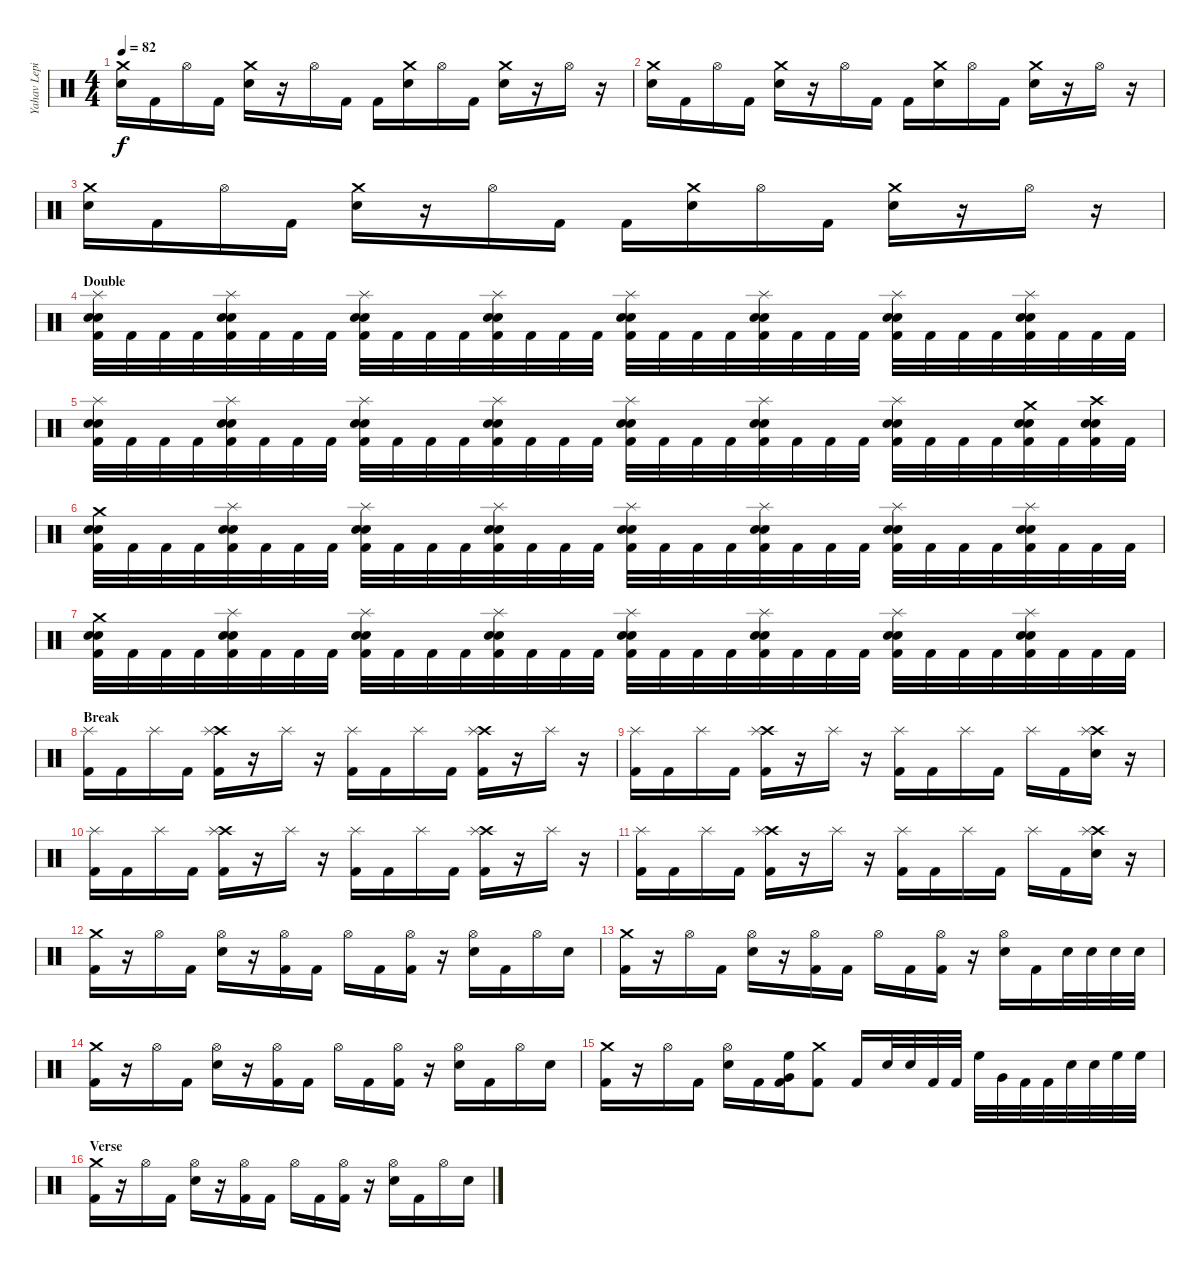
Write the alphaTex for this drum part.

\track ("Yahav Lepinsky" "Yahav Lepi") {instrument percussion}
\staff {score}
\articulation defaults
\ts (4 4)
\tempo 82
\clef neutral
\ks c
("Crash medium (hit)" "Electric Snare (hit)").16{dy f} "Kick (hit) 2".16 "Hi-Hat (open)".16 "Kick (hit) 2".16 ("Crash medium (hit)" "Electric Snare (hit)").16 r.16 "Hi-Hat (open)".16 "Kick (hit) 2".16 "Kick (hit) 2".16 ("Crash medium (hit)" "Electric Snare (hit)").16 "Hi-Hat (open)".16 "Kick (hit) 2".16 ("Crash medium (hit)" "Electric Snare (hit)").16 r.16 "Hi-Hat (open)".16 r.16 |
("Crash medium (hit)" "Electric Snare (hit)").16 "Kick (hit) 2".16 "Hi-Hat (open)".16 "Kick (hit) 2".16 ("Crash medium (hit)" "Electric Snare (hit)").16 r.16 "Hi-Hat (open)".16 "Kick (hit) 2".16 "Kick (hit) 2".16 ("Crash medium (hit)" "Electric Snare (hit)").16 "Hi-Hat (open)".16 "Kick (hit) 2".16 ("Crash medium (hit)" "Electric Snare (hit)").16 r.16 "Hi-Hat (open)".16 r.16 |
("Crash medium (hit)" "Electric Snare (hit)").16 "Kick (hit) 2".16 "Hi-Hat (open)".16 "Kick (hit) 2".16 ("Crash medium (hit)" "Electric Snare (hit)").16 r.16 "Hi-Hat (open)".16 "Kick (hit) 2".16 "Kick (hit) 2".16 ("Crash medium (hit)" "Electric Snare (hit)").16 "Hi-Hat (open)".16 "Kick (hit) 2".16 ("Crash medium (hit)" "Electric Snare (hit)").16 r.16 "Hi-Hat (open)".16 r.16 |
\section ("" "Double")
("Splash (hit)" "Electric Snare (hit)" "Electric Snare (hit)" "Kick (hit) 2").32 "Kick (hit) 2".32 "Kick (hit) 2".32 "Kick (hit) 2".32 ("Splash (hit)" "Electric Snare (hit)" "Electric Snare (hit)" "Kick (hit) 2").32 "Kick (hit) 2".32 "Kick (hit) 2".32 "Kick (hit) 2".32 ("Splash (hit)" "Electric Snare (hit)" "Electric Snare (hit)" "Kick (hit) 2").32 "Kick (hit) 2".32 "Kick (hit) 2".32 "Kick (hit) 2".32 ("Splash (hit)" "Electric Snare (hit)" "Electric Snare (hit)" "Kick (hit) 2").32 "Kick (hit) 2".32 "Kick (hit) 2".32 "Kick (hit) 2".32 ("Splash (hit)" "Electric Snare (hit)" "Electric Snare (hit)" "Kick (hit) 2").32 "Kick (hit) 2".32 "Kick (hit) 2".32 "Kick (hit) 2".32 ("Splash (hit)" "Electric Snare (hit)" "Electric Snare (hit)" "Kick (hit) 2").32 "Kick (hit) 2".32 "Kick (hit) 2".32 "Kick (hit) 2".32 ("Splash (hit)" "Electric Snare (hit)" "Electric Snare (hit)" "Kick (hit) 2").32 "Kick (hit) 2".32 "Kick (hit) 2".32 "Kick (hit) 2".32 ("Splash (hit)" "Electric Snare (hit)" "Electric Snare (hit)" "Kick (hit) 2").32 "Kick (hit) 2".32 "Kick (hit) 2".32 "Kick (hit) 2".32 |
("Splash (hit)" "Electric Snare (hit)" "Electric Snare (hit)" "Kick (hit) 2").32 "Kick (hit) 2".32 "Kick (hit) 2".32 "Kick (hit) 2".32 ("Splash (hit)" "Electric Snare (hit)" "Electric Snare (hit)" "Kick (hit) 2").32 "Kick (hit) 2".32 "Kick (hit) 2".32 "Kick (hit) 2".32 ("Splash (hit)" "Electric Snare (hit)" "Electric Snare (hit)" "Kick (hit) 2").32 "Kick (hit) 2".32 "Kick (hit) 2".32 "Kick (hit) 2".32 ("Splash (hit)" "Electric Snare (hit)" "Electric Snare (hit)" "Kick (hit) 2").32 "Kick (hit) 2".32 "Kick (hit) 2".32 "Kick (hit) 2".32 ("Splash (hit)" "Electric Snare (hit)" "Electric Snare (hit)" "Kick (hit) 2").32 "Kick (hit) 2".32 "Kick (hit) 2".32 "Kick (hit) 2".32 ("Splash (hit)" "Electric Snare (hit)" "Electric Snare (hit)" "Kick (hit) 2").32 "Kick (hit) 2".32 "Kick (hit) 2".32 "Kick (hit) 2".32 ("Splash (hit)" "Electric Snare (hit)" "Electric Snare (hit)" "Kick (hit) 2").32 "Kick (hit) 2".32 "Kick (hit) 2".32 "Kick (hit) 2".32 ("Crash medium (hit)" "Electric Snare (hit)" "Electric Snare (hit)" "Kick (hit) 2").32 "Kick (hit) 2".32 ("Crash high (hit)" "Electric Snare (hit)" "Electric Snare (hit)" "Kick (hit) 2").32 "Kick (hit) 2".32 |
("Crash medium (hit)" "Electric Snare (hit)" "Electric Snare (hit)" "Kick (hit) 2").32 "Kick (hit) 2".32 "Kick (hit) 2".32 "Kick (hit) 2".32 ("Splash (hit)" "Electric Snare (hit)" "Electric Snare (hit)" "Kick (hit) 2").32 "Kick (hit) 2".32 "Kick (hit) 2".32 "Kick (hit) 2".32 ("Splash (hit)" "Electric Snare (hit)" "Electric Snare (hit)" "Kick (hit) 2").32 "Kick (hit) 2".32 "Kick (hit) 2".32 "Kick (hit) 2".32 ("Splash (hit)" "Electric Snare (hit)" "Electric Snare (hit)" "Kick (hit) 2").32 "Kick (hit) 2".32 "Kick (hit) 2".32 "Kick (hit) 2".32 ("Splash (hit)" "Electric Snare (hit)" "Electric Snare (hit)" "Kick (hit) 2").32 "Kick (hit) 2".32 "Kick (hit) 2".32 "Kick (hit) 2".32 ("Splash (hit)" "Electric Snare (hit)" "Electric Snare (hit)" "Kick (hit) 2").32 "Kick (hit) 2".32 "Kick (hit) 2".32 "Kick (hit) 2".32 ("Splash (hit)" "Electric Snare (hit)" "Electric Snare (hit)" "Kick (hit) 2").32 "Kick (hit) 2".32 "Kick (hit) 2".32 "Kick (hit) 2".32 ("Splash (hit)" "Electric Snare (hit)" "Electric Snare (hit)" "Kick (hit) 2").32 "Kick (hit) 2".32 "Kick (hit) 2".32 "Kick (hit) 2".32 |
("Crash medium (hit)" "Electric Snare (hit)" "Electric Snare (hit)" "Kick (hit) 2").32 "Kick (hit) 2".32 "Kick (hit) 2".32 "Kick (hit) 2".32 ("Splash (hit)" "Electric Snare (hit)" "Electric Snare (hit)" "Kick (hit) 2").32 "Kick (hit) 2".32 "Kick (hit) 2".32 "Kick (hit) 2".32 ("Splash (hit)" "Electric Snare (hit)" "Electric Snare (hit)" "Kick (hit) 2").32 "Kick (hit) 2".32 "Kick (hit) 2".32 "Kick (hit) 2".32 ("Splash (hit)" "Electric Snare (hit)" "Electric Snare (hit)" "Kick (hit) 2").32 "Kick (hit) 2".32 "Kick (hit) 2".32 "Kick (hit) 2".32 ("Splash (hit)" "Electric Snare (hit)" "Electric Snare (hit)" "Kick (hit) 2").32 "Kick (hit) 2".32 "Kick (hit) 2".32 "Kick (hit) 2".32 ("Splash (hit)" "Electric Snare (hit)" "Electric Snare (hit)" "Kick (hit) 2").32 "Kick (hit) 2".32 "Kick (hit) 2".32 "Kick (hit) 2".32 ("Splash (hit)" "Electric Snare (hit)" "Electric Snare (hit)" "Kick (hit) 2").32 "Kick (hit) 2".32 "Kick (hit) 2".32 "Kick (hit) 2".32 ("Splash (hit)" "Electric Snare (hit)" "Electric Snare (hit)" "Kick (hit) 2").32 "Kick (hit) 2".32 "Kick (hit) 2".32 "Kick (hit) 2".32 |
\section ("" "Break")
("Splash (hit)" "Kick (hit) 2").16 "Kick (hit) 2".16 "Splash (hit)".16 "Kick (hit) 2".16 ("Crash high (hit)" "Splash (hit)" "Kick (hit) 2").16 r.16 "Splash (hit)".16 r.16 ("Splash (hit)" "Kick (hit) 2").16 "Kick (hit) 2".16 "Splash (hit)".16 "Kick (hit) 2".16 ("Crash high (hit)" "Splash (hit)" "Kick (hit) 2").16 r.16 "Splash (hit)".16 r.16 |
("Splash (hit)" "Kick (hit) 2").16 "Kick (hit) 2".16 "Splash (hit)".16 "Kick (hit) 2".16 ("Crash high (hit)" "Splash (hit)" "Kick (hit) 2").16 r.16 "Splash (hit)".16 r.16 ("Splash (hit)" "Kick (hit) 2").16 "Kick (hit) 2".16 "Splash (hit)".16 "Kick (hit) 2".16 "Splash (hit)".16 "Kick (hit) 2".16 ("Crash high (hit)" "Electric Snare (hit)" "Splash (hit)").16 r.16 |
("Splash (hit)" "Kick (hit) 2").16 "Kick (hit) 2".16 "Splash (hit)".16 "Kick (hit) 2".16 ("Crash high (hit)" "Splash (hit)" "Kick (hit) 2").16 r.16 "Splash (hit)".16 r.16 ("Splash (hit)" "Kick (hit) 2").16 "Kick (hit) 2".16 "Splash (hit)".16 "Kick (hit) 2".16 ("Crash high (hit)" "Splash (hit)" "Kick (hit) 2").16 r.16 "Splash (hit)".16 r.16 |
("Splash (hit)" "Kick (hit) 2").16 "Kick (hit) 2".16 "Splash (hit)".16 "Kick (hit) 2".16 ("Crash high (hit)" "Splash (hit)" "Kick (hit) 2").16 r.16 "Splash (hit)".16 r.16 ("Splash (hit)" "Kick (hit) 2").16 "Kick (hit) 2".16 "Splash (hit)".16 "Kick (hit) 2".16 "Splash (hit)".16 "Kick (hit) 2".16 ("Crash high (hit)" "Electric Snare (hit)" "Splash (hit)").16 r.16 |
("Crash medium (hit)" "Kick (hit) 2").16 r.16 "Hi-Hat (open)".16 "Kick (hit) 2".16 ("Hi-Hat (open)" "Electric Snare (hit)").16 r.16 ("Hi-Hat (open)" "Kick (hit) 2").16 "Kick (hit) 2".16 "Hi-Hat (open)".16 "Kick (hit) 2".16 ("Hi-Hat (open)" "Kick (hit) 2").16 r.16 ("Hi-Hat (open)" "Electric Snare (hit)").16 "Kick (hit) 2".16 "Hi-Hat (open)".16 "Electric Snare (hit)".16 |
("Crash medium (hit)" "Kick (hit) 2").16 r.16 "Hi-Hat (open)".16 "Kick (hit) 2".16 ("Hi-Hat (open)" "Electric Snare (hit)").16 r.16 ("Hi-Hat (open)" "Kick (hit) 2").16 "Kick (hit) 2".16 "Hi-Hat (open)".16 "Kick (hit) 2".16 ("Hi-Hat (open)" "Kick (hit) 2").16 r.16 ("Hi-Hat (open)" "Electric Snare (hit)").16 "Kick (hit) 2".16 "Electric Snare (hit)".32 "Electric Snare (hit)".32 "Electric Snare (hit)".32 "Electric Snare (hit)".32 |
("Crash medium (hit)" "Kick (hit) 2").16 r.16 "Hi-Hat (open)".16 "Kick (hit) 2".16 ("Hi-Hat (open)" "Electric Snare (hit)").16 r.16 ("Hi-Hat (open)" "Kick (hit) 2").16 "Kick (hit) 2".16 "Hi-Hat (open)".16 "Kick (hit) 2".16 ("Hi-Hat (open)" "Kick (hit) 2").16 r.16 ("Hi-Hat (open)" "Electric Snare (hit)").16 "Kick (hit) 2".16 "Hi-Hat (open)".16 "Electric Snare (hit)".16 |
("Crash medium (hit)" "Kick (hit) 2").16 r.16 "Hi-Hat (open)".16 "Kick (hit) 2".16 ("Hi-Hat (open)" "Electric Snare (hit)").16 "Kick (hit) 2".16 ("High Floor Tom (hit)" "Very Low Tom (hit)" "Kick (hit) 2").16 ("Crash medium (hit)" "Kick (hit) 2").8 "Kick (hit) 2".16 "Electric Snare (hit)".32 "Electric Snare (hit)".32 "Kick (hit) 2".32 "Kick (hit) 2".32 "High Floor Tom (hit)".32 "Very Low Tom (hit)".32 "Kick (hit) 2".32 "Kick (hit) 2".32 "Electric Snare (hit)".32 "Electric Snare (hit)".32 "High Floor Tom (hit)".32 "High Floor Tom (hit)".32 |
\section ("" "Verse")
("Crash medium (hit)" "Kick (hit) 2").16 r.16 "Hi-Hat (open)".16 "Kick (hit) 2".16 ("Hi-Hat (open)" "Electric Snare (hit)").16 r.16 ("Hi-Hat (open)" "Kick (hit) 2").16 "Kick (hit) 2".16 "Hi-Hat (open)".16 "Kick (hit) 2".16 ("Hi-Hat (open)" "Kick (hit) 2").16 r.16 ("Hi-Hat (open)" "Electric Snare (hit)").16 "Kick (hit) 2".16 "Hi-Hat (open)".16 "Electric Snare (hit)".16
